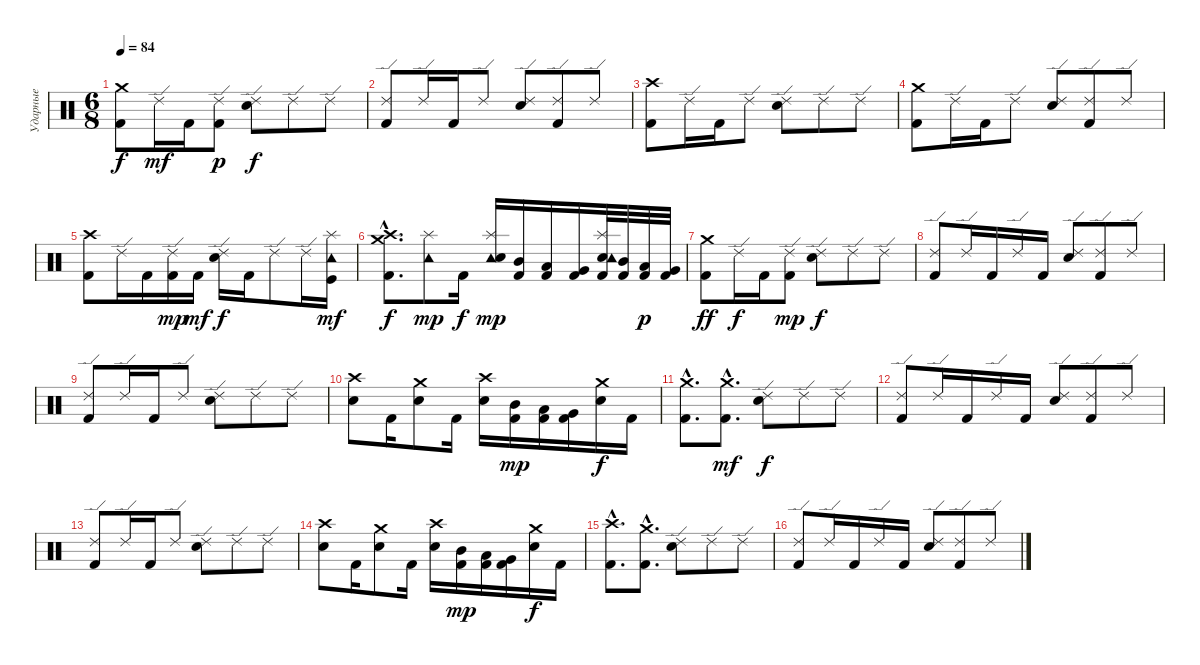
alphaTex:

\track ("Ударные" "Ударные") {instrument percussion}
\staff {score}
\articulation defaults
\ts (6 8)
\tempo 84
\clef neutral
\ks c
("Crash medium (hit)" "Kick (hit) 2").8{dy f} "Ride (edge) 2".16{dy mf} "Kick (hit) 2".16 ("Ride (edge) 2" "Kick (hit) 2").8{dy p} ("Ride (edge) 2" "Electric Snare (hit)").8{dy f} "Ride (edge) 2".8 "Ride (edge) 2".8 |
("Ride (edge) 2" "Kick (hit) 2").8 "Ride (edge) 2".16 "Kick (hit) 2".16 "Ride (edge) 2".8 ("Ride (edge) 2" "Electric Snare (hit)").8 ("Ride (edge) 2" "Kick (hit) 2").8 "Ride (edge) 2".8 |
("Crash high (hit)" "Kick (hit) 2").8 "Ride (edge) 2".16 "Kick (hit) 2".16 "Ride (edge) 2".8 ("Ride (edge) 2" "Electric Snare (hit)").8 "Ride (edge) 2".8 "Ride (edge) 2".8 |
("Crash medium (hit)" "Kick (hit) 2").8 "Ride (edge) 2".16 "Kick (hit) 2".16 "Ride (edge) 2".8 ("Ride (edge) 2" "Electric Snare (hit)").8 ("Ride (edge) 2" "Kick (hit) 2").8 "Ride (edge) 2".8 |
("Crash high (hit)" "Kick (hit) 2").8 "Ride (edge) 2".16 "Kick (hit) 2".16 ("Ride (edge) 2" "Kick (hit) 2").16{dy mp} "Kick (hit) 2".16{dy mf} ("Ride (edge) 2" "Electric Snare (hit)").16{dy f} "Kick (hit) 2".16 "Ride (edge) 2".8 "Ride (edge) 2".16 ("Splash (hit)" "Tambourine (hit)" "Kick (hit)").16{dy mf} |
("Crash medium (hit)"{hac} "Crash high (hit)"{hac} "Kick (hit) 2"{hac}).8{d dy f} ("Splash (hit)" "Tambourine (hit)").8{dy mp} "Kick (hit) 2".16{dy f} ("Splash (hit)" "Tambourine (hit)" "Electric Snare (hit)").16{dy mp} ("Mid Tom (hit)" "Kick (hit) 2").16 ("Low Tom (hit)" "Kick (hit) 2").16 ("Very Low Tom (hit)" "Kick (hit) 2").16 ("Electric Snare (hit)" "Kick (hit) 2" "Tambourine (hit)" "Splash (hit)").32 ("Mid Tom (hit)" "Kick (hit) 2").32 ("Low Tom (hit)" "Kick (hit) 2").32{dy p} ("Very Low Tom (hit)" "Kick (hit) 2").32 |
\section ("" "")
("Crash medium (hit)" "Kick (hit) 2").8{dy ff} "Ride (edge) 2".16{dy f} "Kick (hit) 2".16 ("Ride (edge) 2" "Kick (hit) 2").8{dy mp} ("Ride (edge) 2" "Electric Snare (hit)").8{dy f} "Ride (edge) 2".8 "Ride (edge) 2".8 |
("Ride (edge) 2" "Kick (hit) 2").8 "Ride (edge) 2".16 "Kick (hit) 2".16 "Ride (edge) 2".16 "Kick (hit) 2".16 ("Ride (edge) 2" "Electric Snare (hit)").8 ("Ride (edge) 2" "Kick (hit) 2").8 "Ride (edge) 2".8 |
("Ride (edge) 2" "Kick (hit) 2").8 "Ride (edge) 2".16 "Kick (hit) 2".16 "Ride (edge) 2".8 ("Ride (edge) 2" "Electric Snare (hit)").8 "Ride (edge) 2".8 "Ride (edge) 2".8 |
("Crash high (hit)" "Electric Snare (hit)").8 "Kick (hit) 2".16 ("Crash medium (hit)" "Electric Snare (hit)").8 "Kick (hit) 2".16 ("Crash high (hit)" "Electric Snare (hit)").16 ("Mid Tom (hit)" "Kick (hit) 2").16{dy mp} ("Low Tom (hit)" "Kick (hit) 2").16 ("Very Low Tom (hit)" "Kick (hit) 2").16 ("Crash medium (hit)" "Electric Snare (hit)").16{dy f} "Kick (hit) 2".16 |
("Crash medium (hit)"{hac} "Kick (hit) 2"{hac}).8{d} ("Crash medium (hit)"{hac} "Kick (hit) 2"{hac}).8{d dy mf} ("Ride (edge) 2" "Electric Snare (hit)").8{dy f} "Ride (edge) 2".8 "Ride (edge) 2".8 |
("Ride (edge) 2" "Kick (hit) 2").8 "Ride (edge) 2".16 "Kick (hit) 2".16 "Ride (edge) 2".16 "Kick (hit) 2".16 ("Ride (edge) 2" "Electric Snare (hit)").8 ("Ride (edge) 2" "Kick (hit) 2").8 "Ride (edge) 2".8 |
("Ride (edge) 2" "Kick (hit) 2").8 "Ride (edge) 2".16 "Kick (hit) 2".16 "Ride (edge) 2".8 ("Ride (edge) 2" "Electric Snare (hit)").8 "Ride (edge) 2".8 "Ride (edge) 2".8 |
("Crash high (hit)" "Electric Snare (hit)").8 "Kick (hit) 2".16 ("Crash medium (hit)" "Electric Snare (hit)").8 "Kick (hit) 2".16 ("Crash high (hit)" "Electric Snare (hit)").16 ("Mid Tom (hit)" "Kick (hit) 2").16{dy mp} ("Low Tom (hit)" "Kick (hit) 2").16 ("Very Low Tom (hit)" "Kick (hit) 2").16 ("Crash medium (hit)" "Electric Snare (hit)").16{dy f} "Kick (hit) 2".16 |
("Crash high (hit)"{hac} "Kick (hit) 2"{hac}).8{d} ("Crash medium (hit)"{hac} "Kick (hit) 2"{hac}).8{d} ("Ride (edge) 2" "Electric Snare (hit)").8 "Ride (edge) 2".8 "Ride (edge) 2".8 |
("Ride (edge) 2" "Kick (hit) 2").8 "Ride (edge) 2".16 "Kick (hit) 2".16 "Ride (edge) 2".16 "Kick (hit) 2".16 ("Ride (edge) 2" "Electric Snare (hit)").8 ("Ride (edge) 2" "Kick (hit) 2").8 "Ride (edge) 2".8
